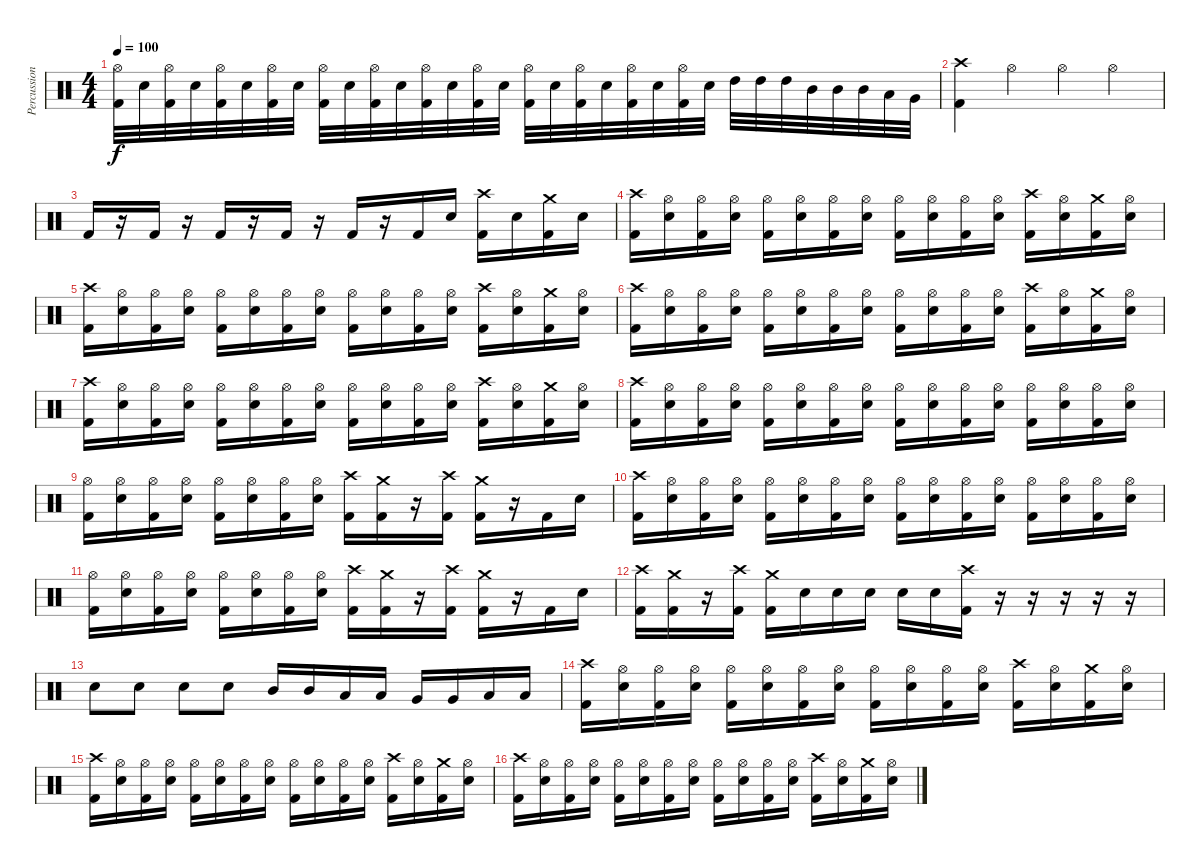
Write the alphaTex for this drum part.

\track ("Percussion" "Percussion") {instrument percussion}
\staff {score}
\articulation defaults
\ts (4 4)
\tempo 100
\clef neutral
\ks c
("Hi-Hat (open)" "Kick (hit) 2").32{dy f} "Snare (hit) 2".32 ("Hi-Hat (open)" "Kick (hit) 2").32 "Snare (hit) 2".32 ("Hi-Hat (open)" "Kick (hit) 2").32 "Snare (hit) 2".32 ("Hi-Hat (open)" "Kick (hit) 2").32 "Snare (hit) 2".32 ("Hi-Hat (open)" "Kick (hit) 2").32 "Snare (hit) 2".32 ("Hi-Hat (open)" "Kick (hit) 2").32 "Snare (hit) 2".32 ("Hi-Hat (open)" "Kick (hit) 2").32 "Snare (hit) 2".32 ("Hi-Hat (open)" "Kick (hit) 2").32 "Snare (hit) 2".32 ("Hi-Hat (open)" "Kick (hit) 2").32 "Snare (hit) 2".32 ("Hi-Hat (open)" "Kick (hit) 2").32 "Snare (hit) 2".32 ("Hi-Hat (open)" "Kick (hit) 2").32 "Snare (hit) 2".32 ("Hi-Hat (open)" "Kick (hit) 2").32 "Snare (hit) 2".32 "High Tom (hit)".32 "High Tom (hit)".32 "High Tom (hit)".32 "Mid Tom (hit)".32 "Mid Tom (hit)".32 "Mid Tom (hit)".32 "Low Tom (hit)".32 "Very Low Tom (hit)".32 |
("Crash high (hit)" "Kick (hit) 2").4 "Hi-Hat (open)".4 "Hi-Hat (open)".4 "Hi-Hat (open)".4 |
"Kick (hit) 2".16 r.16 "Kick (hit) 2".16 r.16 "Kick (hit) 2".16 r.16 "Kick (hit) 2".16 r.16 "Kick (hit) 2".16 r.16 "Kick (hit) 2".16 "Snare (hit) 2".16 ("Crash high (hit)" "Kick (hit) 2").16 "Snare (hit) 2".16 ("Crash medium (hit)" "Kick (hit) 2").16 "Snare (hit) 2".16 |
("Crash high (hit)" "Kick (hit) 2").16 ("Hi-Hat (open)" "Snare (hit) 2").16 ("Hi-Hat (open)" "Kick (hit) 2").16 ("Hi-Hat (open)" "Snare (hit) 2").16 ("Hi-Hat (open)" "Kick (hit) 2").16 ("Hi-Hat (open)" "Snare (hit) 2").16 ("Hi-Hat (open)" "Kick (hit) 2").16 ("Hi-Hat (open)" "Snare (hit) 2").16 ("Hi-Hat (open)" "Kick (hit) 2").16 ("Hi-Hat (open)" "Snare (hit) 2").16 ("Hi-Hat (open)" "Kick (hit) 2").16 ("Hi-Hat (open)" "Snare (hit) 2").16 ("Crash high (hit)" "Kick (hit) 2").16 ("Hi-Hat (open)" "Snare (hit) 2").16 ("Crash medium (hit)" "Kick (hit) 2").16 ("Hi-Hat (open)" "Snare (hit) 2").16 |
("Crash high (hit)" "Kick (hit) 2").16 ("Hi-Hat (open)" "Snare (hit) 2").16 ("Hi-Hat (open)" "Kick (hit) 2").16 ("Hi-Hat (open)" "Snare (hit) 2").16 ("Hi-Hat (open)" "Kick (hit) 2").16 ("Hi-Hat (open)" "Snare (hit) 2").16 ("Hi-Hat (open)" "Kick (hit) 2").16 ("Hi-Hat (open)" "Snare (hit) 2").16 ("Hi-Hat (open)" "Kick (hit) 2").16 ("Hi-Hat (open)" "Snare (hit) 2").16 ("Hi-Hat (open)" "Kick (hit) 2").16 ("Hi-Hat (open)" "Snare (hit) 2").16 ("Crash high (hit)" "Kick (hit) 2").16 ("Hi-Hat (open)" "Snare (hit) 2").16 ("Crash medium (hit)" "Kick (hit) 2").16 ("Hi-Hat (open)" "Snare (hit) 2").16 |
("Crash high (hit)" "Kick (hit) 2").16 ("Hi-Hat (open)" "Snare (hit) 2").16 ("Hi-Hat (open)" "Kick (hit) 2").16 ("Hi-Hat (open)" "Snare (hit) 2").16 ("Hi-Hat (open)" "Kick (hit) 2").16 ("Hi-Hat (open)" "Snare (hit) 2").16 ("Hi-Hat (open)" "Kick (hit) 2").16 ("Hi-Hat (open)" "Snare (hit) 2").16 ("Hi-Hat (open)" "Kick (hit) 2").16 ("Hi-Hat (open)" "Snare (hit) 2").16 ("Hi-Hat (open)" "Kick (hit) 2").16 ("Hi-Hat (open)" "Snare (hit) 2").16 ("Crash high (hit)" "Kick (hit) 2").16 ("Hi-Hat (open)" "Snare (hit) 2").16 ("Crash medium (hit)" "Kick (hit) 2").16 ("Hi-Hat (open)" "Snare (hit) 2").16 |
("Crash high (hit)" "Kick (hit) 2").16 ("Hi-Hat (open)" "Snare (hit) 2").16 ("Hi-Hat (open)" "Kick (hit) 2").16 ("Hi-Hat (open)" "Snare (hit) 2").16 ("Hi-Hat (open)" "Kick (hit) 2").16 ("Hi-Hat (open)" "Snare (hit) 2").16 ("Hi-Hat (open)" "Kick (hit) 2").16 ("Hi-Hat (open)" "Snare (hit) 2").16 ("Hi-Hat (open)" "Kick (hit) 2").16 ("Hi-Hat (open)" "Snare (hit) 2").16 ("Hi-Hat (open)" "Kick (hit) 2").16 ("Hi-Hat (open)" "Snare (hit) 2").16 ("Crash high (hit)" "Kick (hit) 2").16 ("Hi-Hat (open)" "Snare (hit) 2").16 ("Crash medium (hit)" "Kick (hit) 2").16 ("Hi-Hat (open)" "Snare (hit) 2").16 |
("Crash high (hit)" "Kick (hit) 2").16 ("Hi-Hat (open)" "Snare (hit) 2").16 ("Hi-Hat (open)" "Kick (hit) 2").16 ("Hi-Hat (open)" "Snare (hit) 2").16 ("Hi-Hat (open)" "Kick (hit) 2").16 ("Hi-Hat (open)" "Snare (hit) 2").16 ("Hi-Hat (open)" "Kick (hit) 2").16 ("Hi-Hat (open)" "Snare (hit) 2").16 ("Hi-Hat (open)" "Kick (hit) 2").16 ("Hi-Hat (open)" "Snare (hit) 2").16 ("Hi-Hat (open)" "Kick (hit) 2").16 ("Hi-Hat (open)" "Snare (hit) 2").16 ("Hi-Hat (open)" "Kick (hit) 2").16 ("Hi-Hat (open)" "Snare (hit) 2").16 ("Hi-Hat (open)" "Kick (hit) 2").16 ("Hi-Hat (open)" "Snare (hit) 2").16 |
("Hi-Hat (open)" "Kick (hit) 2").16 ("Hi-Hat (open)" "Snare (hit) 2").16 ("Hi-Hat (open)" "Kick (hit) 2").16 ("Hi-Hat (open)" "Snare (hit) 2").16 ("Hi-Hat (open)" "Kick (hit) 2").16 ("Hi-Hat (open)" "Snare (hit) 2").16 ("Hi-Hat (open)" "Kick (hit) 2").16 ("Hi-Hat (open)" "Snare (hit) 2").16 ("Crash high (hit)" "Kick (hit) 2").16 ("Crash medium (hit)" "Kick (hit) 2").16 r.16 ("Crash high (hit)" "Kick (hit) 2").16 ("Crash medium (hit)" "Kick (hit) 2").16 r.16 "Kick (hit) 2".16 "Snare (hit) 2".16 |
("Crash high (hit)" "Kick (hit) 2").16 ("Hi-Hat (open)" "Snare (hit) 2").16 ("Hi-Hat (open)" "Kick (hit) 2").16 ("Hi-Hat (open)" "Snare (hit) 2").16 ("Hi-Hat (open)" "Kick (hit) 2").16 ("Hi-Hat (open)" "Snare (hit) 2").16 ("Hi-Hat (open)" "Kick (hit) 2").16 ("Hi-Hat (open)" "Snare (hit) 2").16 ("Hi-Hat (open)" "Kick (hit) 2").16 ("Hi-Hat (open)" "Snare (hit) 2").16 ("Hi-Hat (open)" "Kick (hit) 2").16 ("Hi-Hat (open)" "Snare (hit) 2").16 ("Hi-Hat (open)" "Kick (hit) 2").16 ("Hi-Hat (open)" "Snare (hit) 2").16 ("Hi-Hat (open)" "Kick (hit) 2").16 ("Hi-Hat (open)" "Snare (hit) 2").16 |
("Hi-Hat (open)" "Kick (hit) 2").16 ("Hi-Hat (open)" "Snare (hit) 2").16 ("Hi-Hat (open)" "Kick (hit) 2").16 ("Hi-Hat (open)" "Snare (hit) 2").16 ("Hi-Hat (open)" "Kick (hit) 2").16 ("Hi-Hat (open)" "Snare (hit) 2").16 ("Hi-Hat (open)" "Kick (hit) 2").16 ("Hi-Hat (open)" "Snare (hit) 2").16 ("Crash high (hit)" "Kick (hit) 2").16 ("Crash medium (hit)" "Kick (hit) 2").16 r.16 ("Crash high (hit)" "Kick (hit) 2").16 ("Crash medium (hit)" "Kick (hit) 2").16 r.16 "Kick (hit) 2".16 "Snare (hit) 2".16 |
("Crash high (hit)" "Kick (hit) 2").16 ("Crash medium (hit)" "Kick (hit) 2").16 r.16 ("Crash high (hit)" "Kick (hit) 2").16 ("Crash medium (hit)" "Kick (hit) 2").16 "Snare (hit) 2".16 "Snare (hit) 2".16 "Snare (hit) 2".16 "Snare (hit) 2".16 "Snare (hit) 2".16 ("Crash high (hit)" "Kick (hit) 2").16 r.16 r.16 r.16 r.16 r.16 |
"Snare (hit) 2".8 "Snare (hit) 2".8 "Snare (hit) 2".8 "Snare (hit) 2".8 "Mid Tom (hit)".16 "Mid Tom (hit)".16 "Low Tom (hit)".16 "Low Tom (hit)".16 "Very Low Tom (hit)".16 "Very Low Tom (hit)".16 "Low Floor Tom (hit)".16 "Low Floor Tom (hit)".16 |
("Crash high (hit)" "Kick (hit) 2").16 ("Hi-Hat (open)" "Snare (hit) 2").16 ("Hi-Hat (open)" "Kick (hit) 2").16 ("Hi-Hat (open)" "Snare (hit) 2").16 ("Hi-Hat (open)" "Kick (hit) 2").16 ("Hi-Hat (open)" "Snare (hit) 2").16 ("Hi-Hat (open)" "Kick (hit) 2").16 ("Hi-Hat (open)" "Snare (hit) 2").16 ("Hi-Hat (open)" "Kick (hit) 2").16 ("Hi-Hat (open)" "Snare (hit) 2").16 ("Hi-Hat (open)" "Kick (hit) 2").16 ("Hi-Hat (open)" "Snare (hit) 2").16 ("Crash high (hit)" "Kick (hit) 2").16 ("Hi-Hat (open)" "Snare (hit) 2").16 ("Crash medium (hit)" "Kick (hit) 2").16 ("Hi-Hat (open)" "Snare (hit) 2").16 |
("Crash high (hit)" "Kick (hit) 2").16 ("Hi-Hat (open)" "Snare (hit) 2").16 ("Hi-Hat (open)" "Kick (hit) 2").16 ("Hi-Hat (open)" "Snare (hit) 2").16 ("Hi-Hat (open)" "Kick (hit) 2").16 ("Hi-Hat (open)" "Snare (hit) 2").16 ("Hi-Hat (open)" "Kick (hit) 2").16 ("Hi-Hat (open)" "Snare (hit) 2").16 ("Hi-Hat (open)" "Kick (hit) 2").16 ("Hi-Hat (open)" "Snare (hit) 2").16 ("Hi-Hat (open)" "Kick (hit) 2").16 ("Hi-Hat (open)" "Snare (hit) 2").16 ("Crash high (hit)" "Kick (hit) 2").16 ("Hi-Hat (open)" "Snare (hit) 2").16 ("Crash medium (hit)" "Kick (hit) 2").16 ("Hi-Hat (open)" "Snare (hit) 2").16 |
("Crash high (hit)" "Kick (hit) 2").16 ("Hi-Hat (open)" "Snare (hit) 2").16 ("Hi-Hat (open)" "Kick (hit) 2").16 ("Hi-Hat (open)" "Snare (hit) 2").16 ("Hi-Hat (open)" "Kick (hit) 2").16 ("Hi-Hat (open)" "Snare (hit) 2").16 ("Hi-Hat (open)" "Kick (hit) 2").16 ("Hi-Hat (open)" "Snare (hit) 2").16 ("Hi-Hat (open)" "Kick (hit) 2").16 ("Hi-Hat (open)" "Snare (hit) 2").16 ("Hi-Hat (open)" "Kick (hit) 2").16 ("Hi-Hat (open)" "Snare (hit) 2").16 ("Crash high (hit)" "Kick (hit) 2").16 ("Hi-Hat (open)" "Snare (hit) 2").16 ("Crash medium (hit)" "Kick (hit) 2").16 ("Hi-Hat (open)" "Snare (hit) 2").16
